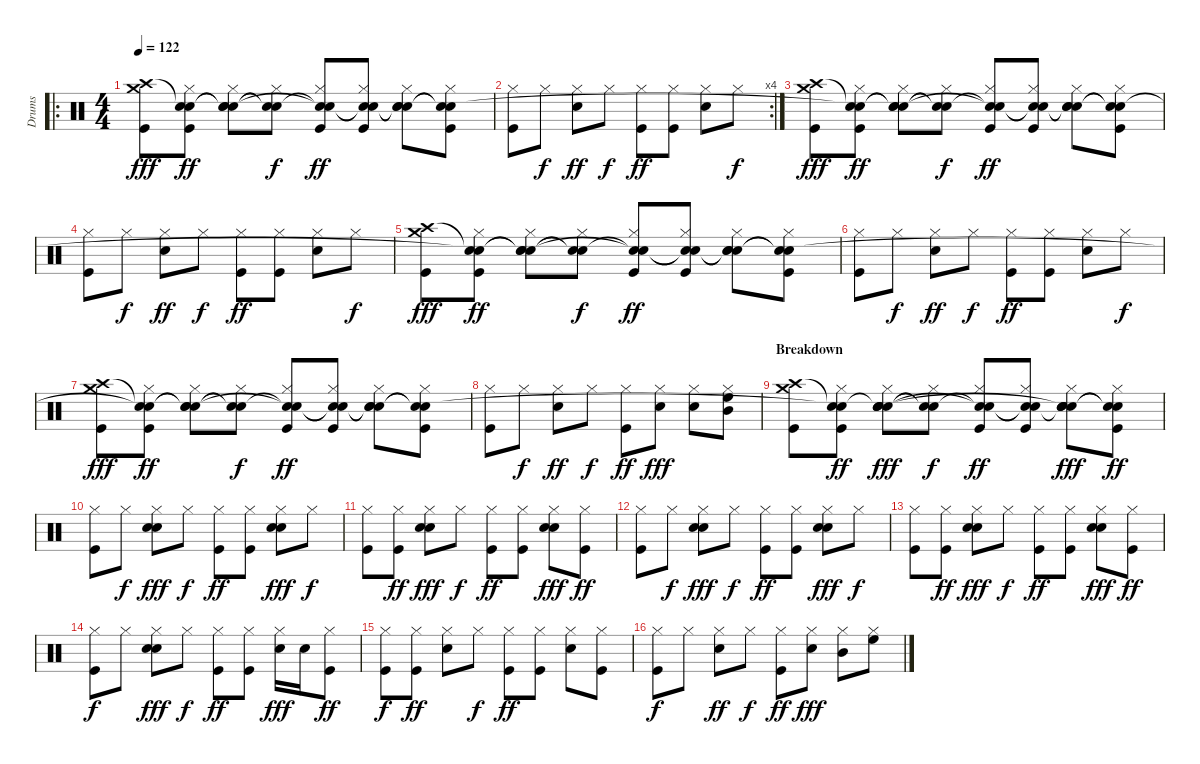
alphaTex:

\track ("Drums" "Drums") {instrument percussion}
\staff {score}
\articulation defaults
\ro
\ts (4 4)
\tempo 122
\clef neutral
\ks c
("Kick (hit)" "Crash medium (hit)" "Crash high (hit)").8{dy fff} ("Hi-Hat (closed)" "Kick (hit)" "Snare (hit)"{t} "Snare (hit)"{t}).8{dy ff} ("Hi-Hat (closed)" "Snare (hit) 2" "Snare (hit)"{t} "Snare (hit)"{t}).8 ("Hi-Hat (closed)" "Snare (hit)"{t} "Snare (hit)"{t}).8{dy f} ("Hi-Hat (closed)" "Kick (hit)" "Snare (hit)"{t} "Snare (hit)"{t}).8{dy ff} ("Hi-Hat (closed)" "Kick (hit)" "Snare (hit)"{t} "Snare (hit)"{t}).8 ("Hi-Hat (closed)" "Snare (hit) 2" "Snare (hit)"{t} "Snare (hit)"{t}).8 ("Hi-Hat (closed)" "Kick (hit)" "Snare (hit)"{t} "Snare (hit)"{t}).8 |
\rc 4
("Hi-Hat (closed)" "Kick (hit)").8 "Hi-Hat (closed)".8{dy f} ("Hi-Hat (closed)" "Snare (hit) 2").8{dy ff} "Hi-Hat (closed)".8{dy f} ("Hi-Hat (closed)" "Kick (hit)").8{dy ff} ("Hi-Hat (closed)" "Kick (hit)").8 ("Hi-Hat (closed)" "Snare (hit) 2").8 "Hi-Hat (closed)".8{dy f} |
("Kick (hit)" "Crash medium (hit)" "Crash high (hit)").8{dy fff} ("Hi-Hat (closed)" "Kick (hit)" "Snare (hit)"{t} "Snare (hit)"{t}).8{dy ff} ("Hi-Hat (closed)" "Snare (hit) 2" "Snare (hit)"{t} "Snare (hit)"{t}).8 ("Hi-Hat (closed)" "Snare (hit)"{t} "Snare (hit)"{t}).8{dy f} ("Hi-Hat (closed)" "Kick (hit)" "Snare (hit)"{t} "Snare (hit)"{t}).8{dy ff} ("Hi-Hat (closed)" "Kick (hit)" "Snare (hit)"{t} "Snare (hit)"{t}).8 ("Hi-Hat (closed)" "Snare (hit) 2" "Snare (hit)"{t} "Snare (hit)"{t}).8 ("Hi-Hat (closed)" "Kick (hit)" "Snare (hit)"{t} "Snare (hit)"{t}).8 |
("Hi-Hat (closed)" "Kick (hit)").8 "Hi-Hat (closed)".8{dy f} ("Hi-Hat (closed)" "Snare (hit) 2").8{dy ff} "Hi-Hat (closed)".8{dy f} ("Hi-Hat (closed)" "Kick (hit)").8{dy ff} ("Hi-Hat (closed)" "Kick (hit)").8 ("Hi-Hat (closed)" "Snare (hit) 2").8 "Hi-Hat (closed)".8{dy f} |
("Kick (hit)" "Crash medium (hit)" "Crash high (hit)").8{dy fff} ("Hi-Hat (closed)" "Kick (hit)" "Snare (hit)"{t} "Snare (hit)"{t}).8{dy ff} ("Hi-Hat (closed)" "Snare (hit) 2" "Snare (hit)"{t} "Snare (hit)"{t}).8 ("Hi-Hat (closed)" "Snare (hit)"{t} "Snare (hit)"{t}).8{dy f} ("Hi-Hat (closed)" "Kick (hit)" "Snare (hit)"{t} "Snare (hit)"{t}).8{dy ff} ("Hi-Hat (closed)" "Kick (hit)" "Snare (hit)"{t} "Snare (hit)"{t}).8 ("Hi-Hat (closed)" "Snare (hit) 2" "Snare (hit)"{t} "Snare (hit)"{t}).8 ("Hi-Hat (closed)" "Kick (hit)" "Snare (hit)"{t} "Snare (hit)"{t}).8 |
("Hi-Hat (closed)" "Kick (hit)").8 "Hi-Hat (closed)".8{dy f} ("Hi-Hat (closed)" "Snare (hit) 2").8{dy ff} "Hi-Hat (closed)".8{dy f} ("Hi-Hat (closed)" "Kick (hit)").8{dy ff} ("Hi-Hat (closed)" "Kick (hit)").8 ("Hi-Hat (closed)" "Snare (hit) 2").8 "Hi-Hat (closed)".8{dy f} |
("Kick (hit)" "Crash medium (hit)" "Crash high (hit)").8{dy fff} ("Hi-Hat (closed)" "Kick (hit)" "Snare (hit)"{t} "Snare (hit)"{t}).8{dy ff} ("Hi-Hat (closed)" "Snare (hit) 2" "Snare (hit)"{t} "Snare (hit)"{t}).8 ("Hi-Hat (closed)" "Snare (hit)"{t} "Snare (hit)"{t}).8{dy f} ("Hi-Hat (closed)" "Kick (hit)" "Snare (hit)"{t} "Snare (hit)"{t}).8{dy ff} ("Hi-Hat (closed)" "Kick (hit)" "Snare (hit)"{t} "Snare (hit)"{t}).8 ("Hi-Hat (closed)" "Snare (hit) 2" "Snare (hit)"{t} "Snare (hit)"{t}).8 ("Hi-Hat (closed)" "Kick (hit)" "Snare (hit)"{t} "Snare (hit)"{t}).8 |
("Hi-Hat (closed)" "Kick (hit)").8 "Hi-Hat (closed)".8{dy f} ("Hi-Hat (closed)" "Snare (hit) 2").8{dy ff} "Hi-Hat (closed)".8{dy f} ("Hi-Hat (closed)" "Kick (hit)").8{dy ff} ("Hi-Hat (closed)" "Snare (hit) 2").8{dy fff} ("Hi-Hat (closed)" "Snare (hit) 2").8 ("Hi-Hat (closed)" "Mid Tom (hit)" "High Floor Tom (hit)").8 |
\section ("" "Breakdown")
("Kick (hit)" "Crash medium (hit)" "Crash high (hit)").8 ("Hi-Hat (closed)" "Kick (hit)" "Snare (hit)"{t} "Snare (hit)"{t}).8{dy ff} ("Hi-Hat (closed)" "Snare (hit) 2" "Hand Clap (hit)" "Snare (hit)"{t} "Snare (hit)").8{dy fff} ("Hi-Hat (closed)" "Snare (hit)"{t} "Snare (hit)"{t}).8{dy f} ("Hi-Hat (closed)" "Kick (hit)" "Snare (hit)"{t} "Snare (hit)"{t}).8{dy ff} ("Hi-Hat (closed)" "Kick (hit)" "Snare (hit)"{t} "Snare (hit)"{t}).8 ("Hi-Hat (closed)" "Snare (hit) 2" "Hand Clap (hit)" "Snare (hit)"{t} "Snare (hit)"{t}).8{dy fff} ("Hi-Hat (closed)" "Kick (hit)" "Snare (hit)"{t} "Snare (hit)"{t}).8{dy ff} |
("Hi-Hat (closed)" "Kick (hit)").8 "Hi-Hat (closed)".8{dy f} ("Hi-Hat (closed)" "Snare (hit) 2" "Hand Clap (hit)").8{dy fff} "Hi-Hat (closed)".8{dy f} ("Hi-Hat (closed)" "Kick (hit)").8{dy ff} ("Hi-Hat (closed)" "Kick (hit)").8 ("Hi-Hat (closed)" "Snare (hit) 2" "Hand Clap (hit)").8{dy fff} "Hi-Hat (closed)".8{dy f} |
("Hi-Hat (closed)" "Kick (hit)").8 ("Hi-Hat (closed)" "Kick (hit)").8{dy ff} ("Hi-Hat (closed)" "Snare (hit) 2" "Hand Clap (hit)").8{dy fff} "Hi-Hat (closed)".8{dy f} ("Hi-Hat (closed)" "Kick (hit)").8{dy ff} ("Hi-Hat (closed)" "Kick (hit)").8 ("Hi-Hat (closed)" "Snare (hit) 2" "Hand Clap (hit)").8{dy fff} ("Hi-Hat (closed)" "Kick (hit)").8{dy ff} |
("Hi-Hat (closed)" "Kick (hit)").8 "Hi-Hat (closed)".8{dy f} ("Hi-Hat (closed)" "Snare (hit) 2" "Hand Clap (hit)").8{dy fff} "Hi-Hat (closed)".8{dy f} ("Hi-Hat (closed)" "Kick (hit)").8{dy ff} ("Hi-Hat (closed)" "Kick (hit)").8 ("Hi-Hat (closed)" "Snare (hit) 2" "Hand Clap (hit)").8{dy fff} "Hi-Hat (closed)".8{dy f} |
("Hi-Hat (closed)" "Kick (hit)").8 ("Hi-Hat (closed)" "Kick (hit)").8{dy ff} ("Hi-Hat (closed)" "Snare (hit) 2" "Hand Clap (hit)").8{dy fff} "Hi-Hat (closed)".8{dy f} ("Hi-Hat (closed)" "Kick (hit)").8{dy ff} ("Hi-Hat (closed)" "Kick (hit)").8 ("Hi-Hat (closed)" "Snare (hit) 2" "Hand Clap (hit)").8{dy fff} ("Hi-Hat (closed)" "Kick (hit)").8{dy ff} |
("Hi-Hat (closed)" "Kick (hit)").8{dy f} "Hi-Hat (closed)".8 ("Hi-Hat (closed)" "Snare (hit) 2" "Hand Clap (hit)").8{dy fff} "Hi-Hat (closed)".8{dy f} ("Hi-Hat (closed)" "Kick (hit)").8{dy ff} ("Hi-Hat (closed)" "Kick (hit)").8 ("Hi-Hat (closed)" "Snare (hit) 2").16{dy fff} "Snare (hit) 2".16 ("Hi-Hat (closed)" "Kick (hit)").8{dy ff} |
("Hi-Hat (closed)" "Kick (hit)").8{dy f} ("Hi-Hat (closed)" "Kick (hit)").8{dy ff} ("Hi-Hat (closed)" "Snare (hit) 2").8 "Hi-Hat (closed)".8{dy f} ("Hi-Hat (closed)" "Kick (hit)").8{dy ff} ("Hi-Hat (closed)" "Kick (hit)").8 ("Hi-Hat (closed)" "Snare (hit) 2").8 ("Hi-Hat (closed)" "Kick (hit)").8 |
("Hi-Hat (closed)" "Kick (hit)").8{dy f} "Hi-Hat (closed)".8 ("Hi-Hat (closed)" "Snare (hit) 2").8{dy ff} "Hi-Hat (closed)".8{dy f} ("Hi-Hat (closed)" "Kick (hit)").8{dy ff} ("Hi-Hat (closed)" "Snare (hit) 2").8{dy fff} ("Hi-Hat (closed)" "Mid Tom (hit)").8 ("Hi-Hat (closed)" "High Floor Tom (hit)").8
